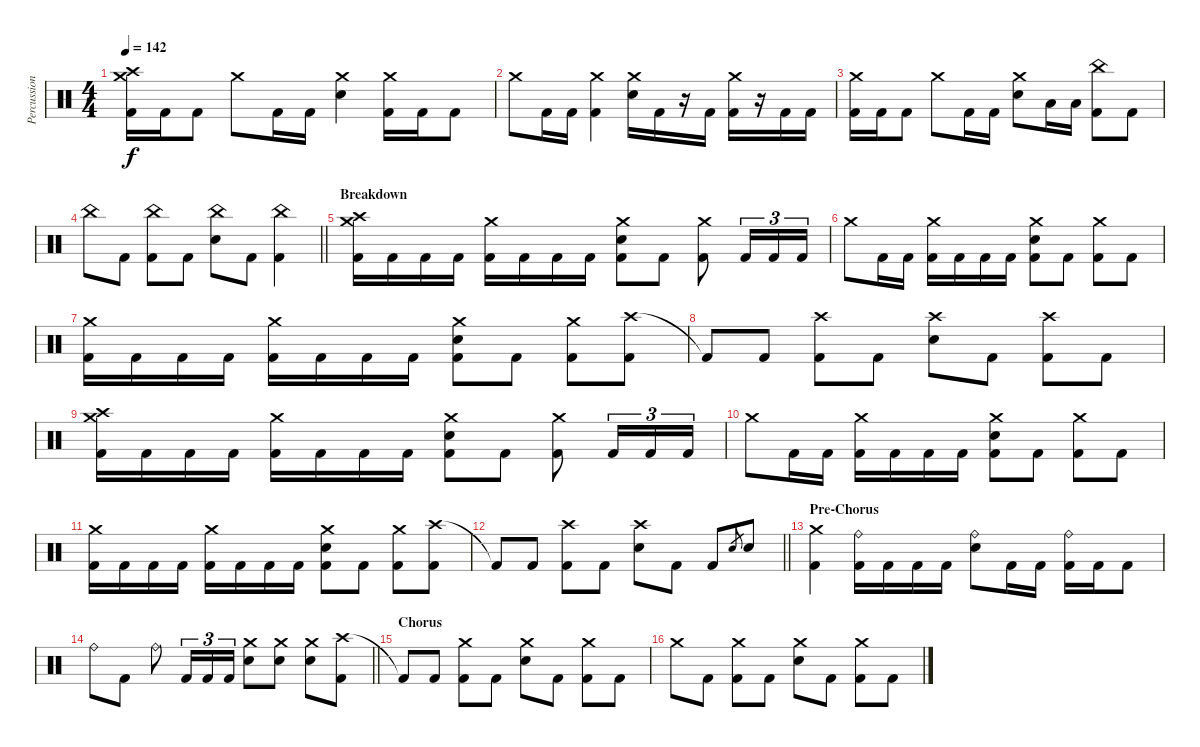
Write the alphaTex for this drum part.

\track ("Percussion" "Percussion") {instrument percussion}
\staff {score}
\articulation defaults
\ts (4 4)
\tempo 142
\clef neutral
\ks c
("Crash medium (hit)" "Crash high (hit)" "Kick (hit) 2").16{dy f} "Kick (hit) 2".16 "Kick (hit) 2".8 "Crash medium (hit)".8 "Kick (hit) 2".16 "Kick (hit) 2".16 ("Crash medium (hit)" "Electric Snare (hit)").4 ("Crash medium (hit)" "Kick (hit) 2").16 "Kick (hit) 2".16 "Kick (hit) 2".8 |
"Crash medium (hit)".8 "Kick (hit) 2".16 "Kick (hit) 2".16 ("Crash medium (hit)" "Kick (hit) 2").4 ("Crash medium (hit)" "Electric Snare (hit)").16 "Kick (hit) 2".16 r.16 "Kick (hit) 2".16 ("Crash medium (hit)" "Kick (hit) 2").16 r.16 "Kick (hit) 2".16 "Kick (hit) 2".16 |
("Crash medium (hit)" "Kick (hit) 2").16 "Kick (hit) 2".16 "Kick (hit) 2".8 "Crash medium (hit)".8 "Kick (hit) 2".16 "Kick (hit) 2".16 ("Crash medium (hit)" "Electric Snare (hit)").8 "Low Tom (hit)".16 "Low Tom (hit)".16 ("China (hit)" "Kick (hit) 2").8 "Kick (hit) 2".8 |
\barLineRight lightlight "China (hit)".8 "Kick (hit) 2".8
("China (hit)" "Kick (hit) 2").8 "Kick (hit) 2".8 ("China (hit)" "Electric Snare (hit)").8 "Kick (hit) 2".8 ("China (hit)" "Kick (hit) 2").4 |
\section ("" "Breakdown")
("Crash medium (hit)" "Crash high (hit)" "Kick (hit) 2").16 "Kick (hit) 2".16 "Kick (hit) 2".16 "Kick (hit) 2".16 ("Crash medium (hit)" "Kick (hit) 2").16 "Kick (hit) 2".16 "Kick (hit) 2".16 "Kick (hit) 2".16 ("Crash medium (hit)" "Electric Snare (hit)" "Kick (hit) 2").8 "Kick (hit) 2".8 ("Crash medium (hit)" "Kick (hit) 2").8 "Kick (hit) 2".16{tu (3 2)} "Kick (hit) 2".16{tu (3 2)} "Kick (hit) 2".16{tu (3 2)} |
"Crash medium (hit)".8 "Kick (hit) 2".16 "Kick (hit) 2".16 ("Crash medium (hit)" "Kick (hit) 2").16 "Kick (hit) 2".16 "Kick (hit) 2".16 "Kick (hit) 2".16 ("Crash medium (hit)" "Electric Snare (hit)" "Kick (hit) 2").8 "Kick (hit) 2".8 ("Crash medium (hit)" "Kick (hit) 2").8 "Kick (hit) 2".8 |
("Crash medium (hit)" "Kick (hit) 2").16 "Kick (hit) 2".16 "Kick (hit) 2".16 "Kick (hit) 2".16 ("Crash medium (hit)" "Kick (hit) 2").16 "Kick (hit) 2".16 "Kick (hit) 2".16 "Kick (hit) 2".16 ("Crash medium (hit)" "Electric Snare (hit)" "Kick (hit) 2").8 "Kick (hit) 2".8 ("Crash medium (hit)" "Kick (hit) 2").8 ("Crash high (hit)" "Kick (hit) 2").8 |
"Kick (hit) 2"{t}.8 "Kick (hit) 2".8 ("Crash high (hit)" "Kick (hit) 2").8 "Kick (hit) 2".8 ("Crash high (hit)" "Electric Snare (hit)").8 "Kick (hit) 2".8 ("Crash high (hit)" "Kick (hit) 2").8 "Kick (hit) 2".8 |
("Crash medium (hit)" "Crash high (hit)" "Kick (hit) 2").16 "Kick (hit) 2".16 "Kick (hit) 2".16 "Kick (hit) 2".16 ("Crash medium (hit)" "Kick (hit) 2").16 "Kick (hit) 2".16 "Kick (hit) 2".16 "Kick (hit) 2".16 ("Crash medium (hit)" "Electric Snare (hit)" "Kick (hit) 2").8 "Kick (hit) 2".8 ("Crash medium (hit)" "Kick (hit) 2").8 "Kick (hit) 2".16{tu (3 2)} "Kick (hit) 2".16{tu (3 2)} "Kick (hit) 2".16{tu (3 2)} |
"Crash medium (hit)".8 "Kick (hit) 2".16 "Kick (hit) 2".16 ("Crash medium (hit)" "Kick (hit) 2").16 "Kick (hit) 2".16 "Kick (hit) 2".16 "Kick (hit) 2".16 ("Crash medium (hit)" "Electric Snare (hit)" "Kick (hit) 2").8 "Kick (hit) 2".8 ("Crash medium (hit)" "Kick (hit) 2").8 "Kick (hit) 2".8 |
("Crash medium (hit)" "Kick (hit) 2").16 "Kick (hit) 2".16 "Kick (hit) 2".16 "Kick (hit) 2".16 ("Crash medium (hit)" "Kick (hit) 2").16 "Kick (hit) 2".16 "Kick (hit) 2".16 "Kick (hit) 2".16 ("Crash medium (hit)" "Electric Snare (hit)" "Kick (hit) 2").8 "Kick (hit) 2".8 ("Crash medium (hit)" "Kick (hit) 2").8 ("Crash high (hit)" "Kick (hit) 2").8 |
\barLineRight lightlight "Kick (hit) 2"{t}.8 "Kick (hit) 2".8
("Crash high (hit)" "Kick (hit) 2").8 "Kick (hit) 2".8 ("Crash high (hit)" "Electric Snare (hit)").8 "Kick (hit) 2".8 "Kick (hit) 2".8 "Electric Snare (hit)".8{gr} "Electric Snare (hit)".8 |
\section ("" "Pre-Chorus")
("Crash medium (hit)" "Kick (hit) 2").4 ("Ride (bell)" "Kick (hit) 2").16 "Kick (hit) 2".16 "Kick (hit) 2".16 "Kick (hit) 2".16 ("Ride (bell)" "Electric Snare (hit)").8 "Kick (hit) 2".16 "Kick (hit) 2".16 ("Ride (bell)" "Kick (hit) 2").16 "Kick (hit) 2".16 "Kick (hit) 2".8 |
\barLineRight lightlight "Ride (bell)".8 "Kick (hit) 2".8 "Ride (bell)".8 "Kick (hit) 2".16{tu (3 2)} "Kick (hit) 2".16{tu (3 2)} "Kick (hit) 2".16{tu (3 2)}
("Crash medium (hit)" "Electric Snare (hit)").8 ("Crash medium (hit)" "Electric Snare (hit)").8 ("Crash medium (hit)" "Electric Snare (hit)").8 ("Crash high (hit)" "Kick (hit) 2").8 |
\section ("" "Chorus")
"Kick (hit) 2"{t}.8 "Kick (hit) 2".8 ("Crash medium (hit)" "Kick (hit) 2").8 "Kick (hit) 2".8 ("Crash medium (hit)" "Electric Snare (hit)").8 "Kick (hit) 2".8 ("Crash medium (hit)" "Kick (hit) 2").8 "Kick (hit) 2".8 |
"Crash medium (hit)".8 "Kick (hit) 2".8 ("Crash medium (hit)" "Kick (hit) 2").8 "Kick (hit) 2".8 ("Crash medium (hit)" "Electric Snare (hit)").8 "Kick (hit) 2".8 ("Crash medium (hit)" "Kick (hit) 2").8 "Kick (hit) 2".8
